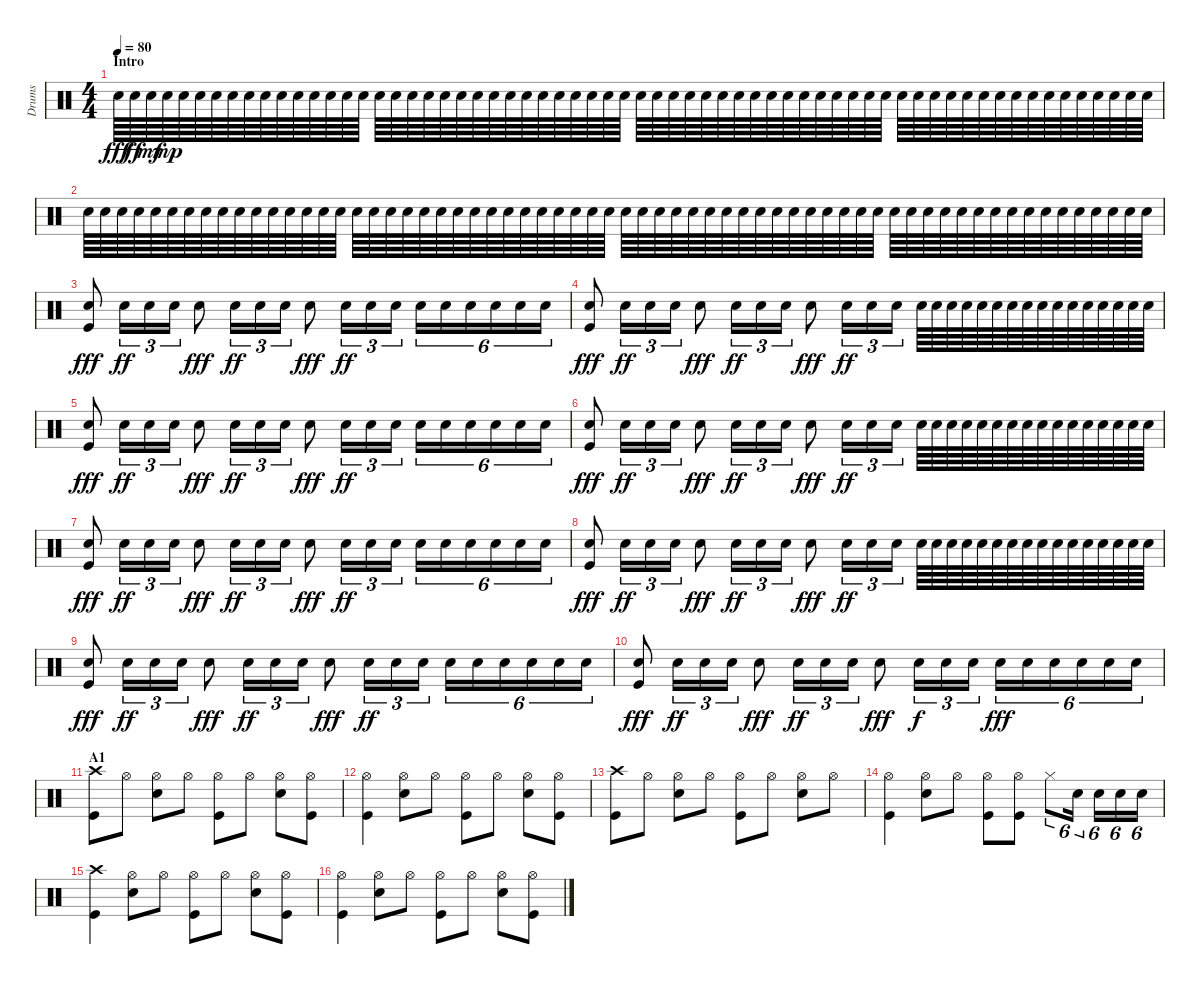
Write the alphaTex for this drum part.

\track ("Drums" "Drums") {instrument percussion}
\staff {score}
\articulation defaults
\ts (4 4)
\section ("" "Intro")
\tempo 80
\clef neutral
\ks c "Snare (hit) 2".64{dy fff} "Snare (hit) 2".64{dy ff} "Snare (hit) 2".64{dy mf} "Snare (hit) 2".64{dy mp} "Snare (hit) 2".64 "Snare (hit) 2".64 "Snare (hit) 2".64 "Snare (hit) 2".64 "Snare (hit) 2".64 "Snare (hit) 2".64 "Snare (hit) 2".64 "Snare (hit) 2".64 "Snare (hit) 2".64 "Snare (hit) 2".64 "Snare (hit) 2".64 "Snare (hit) 2".64 "Snare (hit) 2".64 "Snare (hit) 2".64 "Snare (hit) 2".64 "Snare (hit) 2".64 "Snare (hit) 2".64 "Snare (hit) 2".64 "Snare (hit) 2".64 "Snare (hit) 2".64 "Snare (hit) 2".64 "Snare (hit) 2".64 "Snare (hit) 2".64 "Snare (hit) 2".64 "Snare (hit) 2".64 "Snare (hit) 2".64 "Snare (hit) 2".64 "Snare (hit) 2".64 "Snare (hit) 2".64 "Snare (hit) 2".64 "Snare (hit) 2".64 "Snare (hit) 2".64 "Snare (hit) 2".64 "Snare (hit) 2".64 "Snare (hit) 2".64 "Snare (hit) 2".64 "Snare (hit) 2".64 "Snare (hit) 2".64 "Snare (hit) 2".64 "Snare (hit) 2".64 "Snare (hit) 2".64 "Snare (hit) 2".64 "Snare (hit) 2".64 "Snare (hit) 2".64 "Snare (hit) 2".64 "Snare (hit) 2".64 "Snare (hit) 2".64 "Snare (hit) 2".64 "Snare (hit) 2".64 "Snare (hit) 2".64 "Snare (hit) 2".64 "Snare (hit) 2".64 "Snare (hit) 2".64 "Snare (hit) 2".64 "Snare (hit) 2".64 "Snare (hit) 2".64 "Snare (hit) 2".64 "Snare (hit) 2".64 "Snare (hit) 2".64 "Snare (hit) 2".64
|
"Snare (hit) 2".64 "Snare (hit) 2".64 "Snare (hit) 2".64 "Snare (hit) 2".64 "Snare (hit) 2".64 "Snare (hit) 2".64 "Snare (hit) 2".64 "Snare (hit) 2".64 "Snare (hit) 2".64 "Snare (hit) 2".64 "Snare (hit) 2".64 "Snare (hit) 2".64 "Snare (hit) 2".64 "Snare (hit) 2".64 "Snare (hit) 2".64 "Snare (hit) 2".64 "Snare (hit) 2".64 "Snare (hit) 2".64 "Snare (hit) 2".64 "Snare (hit) 2".64 "Snare (hit) 2".64 "Snare (hit) 2".64 "Snare (hit) 2".64 "Snare (hit) 2".64 "Snare (hit) 2".64 "Snare (hit) 2".64 "Snare (hit) 2".64 "Snare (hit) 2".64 "Snare (hit) 2".64 "Snare (hit) 2".64 "Snare (hit) 2".64 "Snare (hit) 2".64 "Snare (hit) 2".64 "Snare (hit) 2".64 "Snare (hit) 2".64 "Snare (hit) 2".64 "Snare (hit) 2".64 "Snare (hit) 2".64 "Snare (hit) 2".64 "Snare (hit) 2".64 "Snare (hit) 2".64 "Snare (hit) 2".64 "Snare (hit) 2".64 "Snare (hit) 2".64 "Snare (hit) 2".64 "Snare (hit) 2".64 "Snare (hit) 2".64 "Snare (hit) 2".64 "Snare (hit) 2".64 "Snare (hit) 2".64 "Snare (hit) 2".64 "Snare (hit) 2".64 "Snare (hit) 2".64 "Snare (hit) 2".64 "Snare (hit) 2".64 "Snare (hit) 2".64 "Snare (hit) 2".64 "Snare (hit) 2".64 "Snare (hit) 2".64 "Snare (hit) 2".64 "Snare (hit) 2".64 "Snare (hit) 2".64 "Snare (hit) 2".64 "Snare (hit) 2".64 |
("Snare (hit) 2" "Kick (hit)").8{dy fff} "Snare (hit) 2".16{tu (3 2) dy ff} "Snare (hit) 2".16{tu (3 2)} "Snare (hit) 2".16{tu (3 2)} "Snare (hit) 2".8{dy fff} "Snare (hit) 2".16{tu (3 2) dy ff} "Snare (hit) 2".16{tu (3 2)} "Snare (hit) 2".16{tu (3 2)} "Snare (hit) 2".8{dy fff} "Snare (hit) 2".16{tu (3 2) dy ff} "Snare (hit) 2".16{tu (3 2)} "Snare (hit) 2".16{tu (3 2)} "Snare (hit) 2".16{tu (6 4)} "Snare (hit) 2".16{tu (6 4)} "Snare (hit) 2".16{tu (6 4)} "Snare (hit) 2".16{tu (6 4)} "Snare (hit) 2".16{tu (6 4)} "Snare (hit) 2".16{tu (6 4)} |
("Snare (hit) 2" "Kick (hit)").8{dy fff} "Snare (hit) 2".16{tu (3 2) dy ff} "Snare (hit) 2".16{tu (3 2)} "Snare (hit) 2".16{tu (3 2)} "Snare (hit) 2".8{dy fff} "Snare (hit) 2".16{tu (3 2) dy ff} "Snare (hit) 2".16{tu (3 2)} "Snare (hit) 2".16{tu (3 2)} "Snare (hit) 2".8{dy fff} "Snare (hit) 2".16{tu (3 2) dy ff} "Snare (hit) 2".16{tu (3 2)} "Snare (hit) 2".16{tu (3 2)} "Snare (hit) 2".64 "Snare (hit) 2".64 "Snare (hit) 2".64 "Snare (hit) 2".64 "Snare (hit) 2".64 "Snare (hit) 2".64 "Snare (hit) 2".64 "Snare (hit) 2".64 "Snare (hit) 2".64 "Snare (hit) 2".64 "Snare (hit) 2".64 "Snare (hit) 2".64 "Snare (hit) 2".64 "Snare (hit) 2".64 "Snare (hit) 2".64 "Snare (hit) 2".64 |
("Snare (hit) 2" "Kick (hit)").8{dy fff} "Snare (hit) 2".16{tu (3 2) dy ff} "Snare (hit) 2".16{tu (3 2)} "Snare (hit) 2".16{tu (3 2)} "Snare (hit) 2".8{dy fff} "Snare (hit) 2".16{tu (3 2) dy ff} "Snare (hit) 2".16{tu (3 2)} "Snare (hit) 2".16{tu (3 2)} "Snare (hit) 2".8{dy fff} "Snare (hit) 2".16{tu (3 2) dy ff} "Snare (hit) 2".16{tu (3 2)} "Snare (hit) 2".16{tu (3 2)} "Snare (hit) 2".16{tu (6 4)} "Snare (hit) 2".16{tu (6 4)} "Snare (hit) 2".16{tu (6 4)} "Snare (hit) 2".16{tu (6 4)} "Snare (hit) 2".16{tu (6 4)} "Snare (hit) 2".16{tu (6 4)} |
("Snare (hit) 2" "Kick (hit)").8{dy fff} "Snare (hit) 2".16{tu (3 2) dy ff} "Snare (hit) 2".16{tu (3 2)} "Snare (hit) 2".16{tu (3 2)} "Snare (hit) 2".8{dy fff} "Snare (hit) 2".16{tu (3 2) dy ff} "Snare (hit) 2".16{tu (3 2)} "Snare (hit) 2".16{tu (3 2)} "Snare (hit) 2".8{dy fff} "Snare (hit) 2".16{tu (3 2) dy ff} "Snare (hit) 2".16{tu (3 2)} "Snare (hit) 2".16{tu (3 2)} "Snare (hit) 2".64 "Snare (hit) 2".64 "Snare (hit) 2".64 "Snare (hit) 2".64 "Snare (hit) 2".64 "Snare (hit) 2".64 "Snare (hit) 2".64 "Snare (hit) 2".64 "Snare (hit) 2".64 "Snare (hit) 2".64 "Snare (hit) 2".64 "Snare (hit) 2".64 "Snare (hit) 2".64 "Snare (hit) 2".64 "Snare (hit) 2".64 "Snare (hit) 2".64 |
("Snare (hit) 2" "Kick (hit)").8{dy fff} "Snare (hit) 2".16{tu (3 2) dy ff} "Snare (hit) 2".16{tu (3 2)} "Snare (hit) 2".16{tu (3 2)} "Snare (hit) 2".8{dy fff} "Snare (hit) 2".16{tu (3 2) dy ff} "Snare (hit) 2".16{tu (3 2)} "Snare (hit) 2".16{tu (3 2)} "Snare (hit) 2".8{dy fff} "Snare (hit) 2".16{tu (3 2) dy ff} "Snare (hit) 2".16{tu (3 2)} "Snare (hit) 2".16{tu (3 2)} "Snare (hit) 2".16{tu (6 4)} "Snare (hit) 2".16{tu (6 4)} "Snare (hit) 2".16{tu (6 4)} "Snare (hit) 2".16{tu (6 4)} "Snare (hit) 2".16{tu (6 4)} "Snare (hit) 2".16{tu (6 4)} |
("Snare (hit) 2" "Kick (hit)").8{dy fff} "Snare (hit) 2".16{tu (3 2) dy ff} "Snare (hit) 2".16{tu (3 2)} "Snare (hit) 2".16{tu (3 2)} "Snare (hit) 2".8{dy fff} "Snare (hit) 2".16{tu (3 2) dy ff} "Snare (hit) 2".16{tu (3 2)} "Snare (hit) 2".16{tu (3 2)} "Snare (hit) 2".8{dy fff} "Snare (hit) 2".16{tu (3 2) dy ff} "Snare (hit) 2".16{tu (3 2)} "Snare (hit) 2".16{tu (3 2)} "Snare (hit) 2".64 "Snare (hit) 2".64 "Snare (hit) 2".64 "Snare (hit) 2".64 "Snare (hit) 2".64 "Snare (hit) 2".64 "Snare (hit) 2".64 "Snare (hit) 2".64 "Snare (hit) 2".64 "Snare (hit) 2".64 "Snare (hit) 2".64 "Snare (hit) 2".64 "Snare (hit) 2".64 "Snare (hit) 2".64 "Snare (hit) 2".64 "Snare (hit) 2".64 |
("Snare (hit) 2" "Kick (hit)").8{dy fff} "Snare (hit) 2".16{tu (3 2) dy ff} "Snare (hit) 2".16{tu (3 2)} "Snare (hit) 2".16{tu (3 2)} "Snare (hit) 2".8{dy fff} "Snare (hit) 2".16{tu (3 2) dy ff} "Snare (hit) 2".16{tu (3 2)} "Snare (hit) 2".16{tu (3 2)} "Snare (hit) 2".8{dy fff} "Snare (hit) 2".16{tu (3 2) dy ff} "Snare (hit) 2".16{tu (3 2)} "Snare (hit) 2".16{tu (3 2)} "Snare (hit) 2".16{tu (6 4)} "Snare (hit) 2".16{tu (6 4)} "Snare (hit) 2".16{tu (6 4)} "Snare (hit) 2".16{tu (6 4)} "Snare (hit) 2".16{tu (6 4)} "Snare (hit) 2".16{tu (6 4)} |
("Snare (hit) 2" "Kick (hit)").8{dy fff} "Snare (hit) 2".16{tu (3 2) dy ff} "Snare (hit) 2".16{tu (3 2)} "Snare (hit) 2".16{tu (3 2)} "Snare (hit) 2".8{dy fff} "Snare (hit) 2".16{tu (3 2) dy ff} "Snare (hit) 2".16{tu (3 2)} "Snare (hit) 2".16{tu (3 2)} "Snare (hit) 2".8{dy fff} "Snare (hit) 2".16{tu (3 2) dy f} "Snare (hit) 2".16{tu (3 2)} "Snare (hit) 2".16{tu (3 2)} "Snare (hit) 2".16{tu (6 4) dy fff} "Snare (hit) 2".16{tu (6 4)} "Snare (hit) 2".16{tu (6 4)} "Snare (hit) 2".16{tu (6 4)} "Snare (hit) 2".16{tu (6 4)} "Snare (hit) 2".16{tu (6 4)} |
\section ("" "A1")
("Crash high (hit)" "Kick (hit)").8 "Hi-Hat (open)".8 ("Hi-Hat (open)" "Snare (hit) 2").8 "Hi-Hat (open)".8 ("Hi-Hat (open)" "Kick (hit)").8 "Hi-Hat (open)".8 ("Hi-Hat (open)" "Snare (hit) 2").8 ("Hi-Hat (open)" "Kick (hit)").8 |
("Hi-Hat (open)" "Kick (hit)").4 ("Hi-Hat (open)" "Snare (hit) 2").8 "Hi-Hat (open)".8 ("Hi-Hat (open)" "Kick (hit)").8 "Hi-Hat (open)".8 ("Hi-Hat (open)" "Snare (hit) 2").8 ("Hi-Hat (open)" "Kick (hit)").8 |
("Crash high (hit)" "Kick (hit)").8 "Hi-Hat (open)".8 ("Hi-Hat (open)" "Snare (hit) 2").8 "Hi-Hat (open)".8 ("Hi-Hat (open)" "Kick (hit)").8 "Hi-Hat (open)".8 ("Hi-Hat (open)" "Snare (hit) 2").8 "Hi-Hat (open)".8 |
("Hi-Hat (open)" "Kick (hit)").4 ("Hi-Hat (open)" "Snare (hit) 2").8 "Hi-Hat (open)".8 ("Hi-Hat (open)" "Kick (hit)").8 ("Hi-Hat (open)" "Kick (hit)").8 "Hi-Hat (closed)".8{tu (6 4)} "Snare (hit) 2".16{tu (6 4)} "Snare (hit) 2".16{tu (6 4)} "Snare (hit) 2".16{tu (6 4)} "Snare (hit) 2".16{tu (6 4)} |
("Crash high (hit)" "Kick (hit)").4 ("Hi-Hat (open)" "Snare (hit) 2").8 "Hi-Hat (open)".8 ("Hi-Hat (open)" "Kick (hit)").8 "Hi-Hat (open)".8 ("Hi-Hat (open)" "Snare (hit) 2").8 ("Hi-Hat (open)" "Kick (hit)").8 |
("Hi-Hat (open)" "Kick (hit)").4 ("Hi-Hat (open)" "Snare (hit) 2").8 "Hi-Hat (open)".8 ("Hi-Hat (open)" "Kick (hit)").8 "Hi-Hat (open)".8 ("Hi-Hat (open)" "Snare (hit) 2").8 ("Hi-Hat (open)" "Kick (hit)").8
